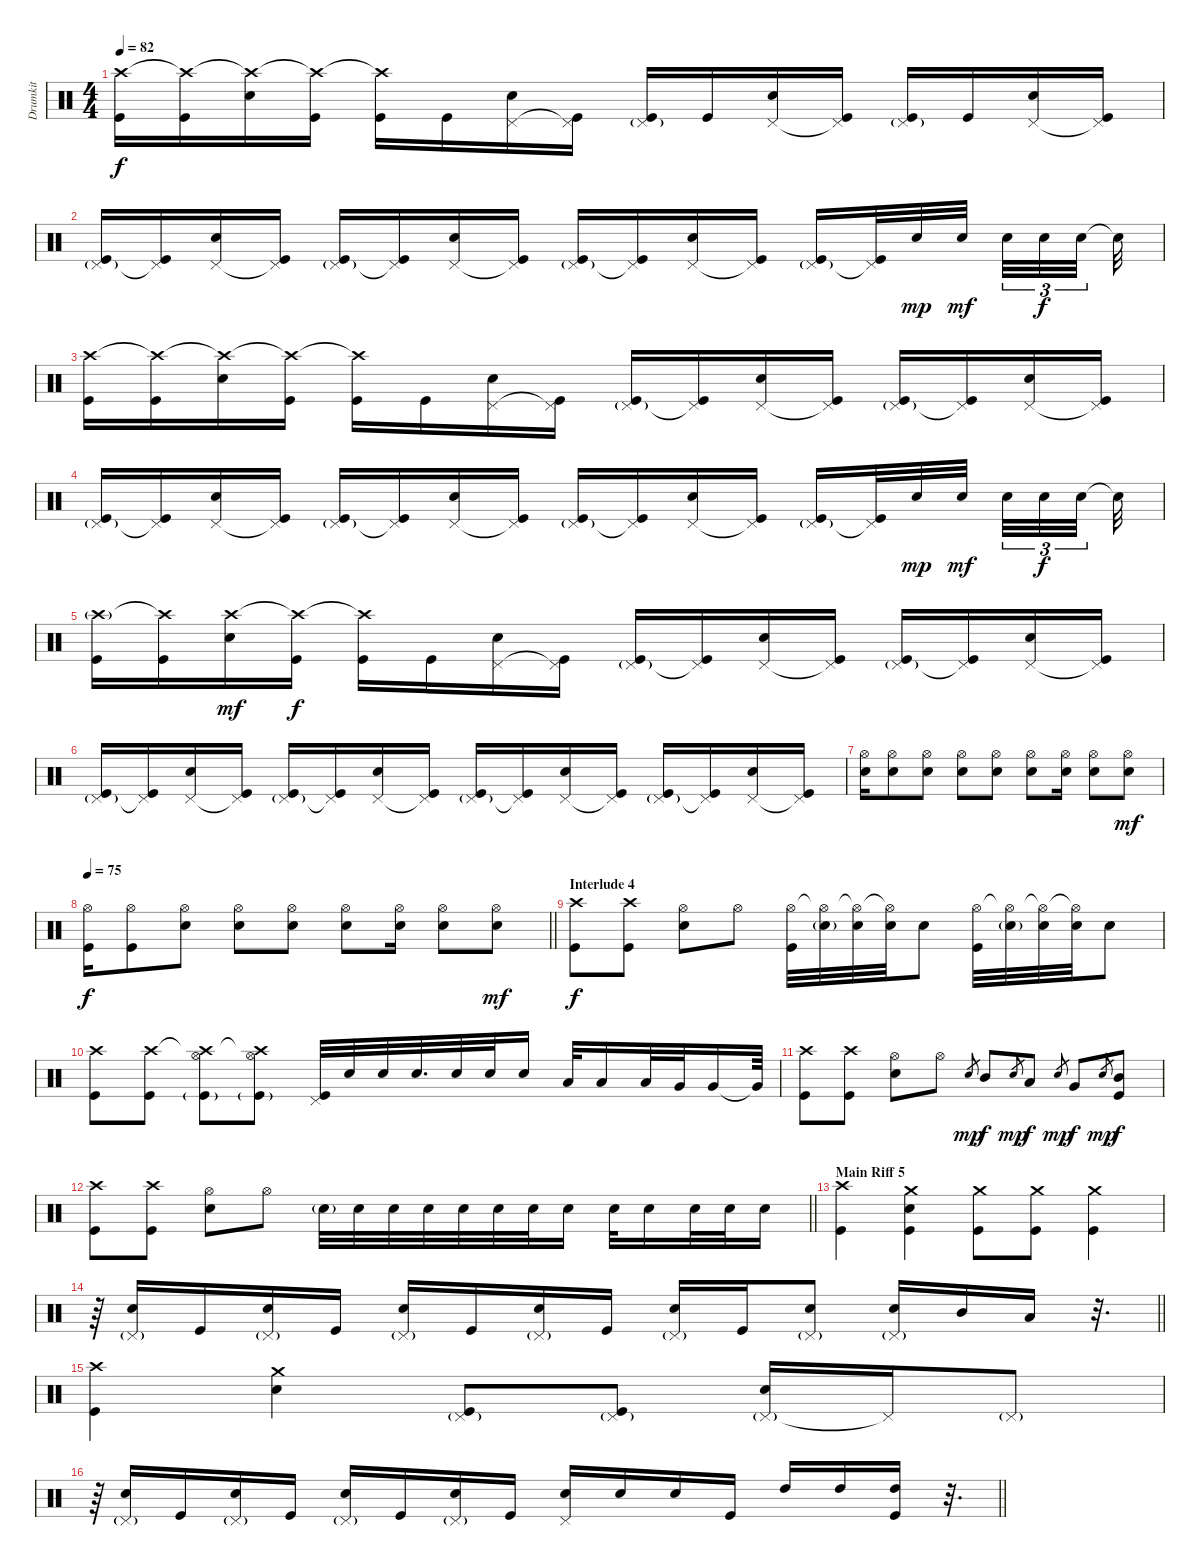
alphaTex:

\track ("Drumkit" "Drumkit") {instrument percussion}
\staff {score}
\articulation defaults
\ts (4 4)
\tempo 82
\clef neutral
\ks c
("Crash high (hit)" "Kick (hit)").16{dy f} ("Crash high (hit)"{t} "Kick (hit)").16 ("Crash high (hit)"{t} "Snare (hit) 2").16 ("Crash high (hit)"{t} "Kick (hit)").16 ("Crash high (hit)"{t} "Kick (hit)").16 "Kick (hit)".16 ("Pedal Hi-Hat (hit)" "Snare (hit) 2").16 ("Pedal Hi-Hat (hit)"{t} "Kick (hit)").16 ("Pedal Hi-Hat (hit)"{g} "Kick (hit)").16 "Kick (hit)".16 ("Pedal Hi-Hat (hit)" "Snare (hit) 2").16 ("Pedal Hi-Hat (hit)"{t} "Kick (hit)").16 ("Pedal Hi-Hat (hit)"{g} "Kick (hit)").16 "Kick (hit)".16 ("Pedal Hi-Hat (hit)" "Snare (hit) 2").16 ("Pedal Hi-Hat (hit)"{t} "Kick (hit)").16 |
("Pedal Hi-Hat (hit)"{g} "Kick (hit)").16 ("Pedal Hi-Hat (hit)"{t} "Kick (hit)").16 ("Pedal Hi-Hat (hit)" "Snare (hit) 2").16 ("Pedal Hi-Hat (hit)"{t} "Kick (hit)").16 ("Pedal Hi-Hat (hit)"{g} "Kick (hit)").16 ("Pedal Hi-Hat (hit)"{t} "Kick (hit)").16 ("Pedal Hi-Hat (hit)" "Snare (hit) 2").16 ("Pedal Hi-Hat (hit)"{t} "Kick (hit)").16 ("Pedal Hi-Hat (hit)"{g} "Kick (hit)").16 ("Pedal Hi-Hat (hit)"{t} "Kick (hit)").16 ("Pedal Hi-Hat (hit)" "Snare (hit) 2").16 ("Pedal Hi-Hat (hit)"{t} "Kick (hit)").16 ("Pedal Hi-Hat (hit)"{g} "Kick (hit)").16 ("Pedal Hi-Hat (hit)"{t} "Kick (hit)").32 "Snare (hit) 2".32{dy mp} "Snare (hit) 2".32{dy mf} "Snare (hit) 2".32{tu (3 2)} "Snare (hit) 2".32{tu (3 2) dy f} "Snare (hit) 2".32{tu (3 2)} "Snare (hit) 2"{t}.32 |
("Crash high (hit)" "Kick (hit)").16 ("Crash high (hit)"{t} "Kick (hit)").16 ("Crash high (hit)"{t} "Snare (hit) 2").16 ("Crash high (hit)"{t} "Kick (hit)").16 ("Crash high (hit)"{t} "Kick (hit)").16 "Kick (hit)".16 ("Pedal Hi-Hat (hit)" "Snare (hit) 2").16 ("Pedal Hi-Hat (hit)"{t} "Kick (hit)").16 ("Pedal Hi-Hat (hit)"{g} "Kick (hit)").16 ("Pedal Hi-Hat (hit)"{t} "Kick (hit)").16 ("Pedal Hi-Hat (hit)" "Snare (hit) 2").16 ("Pedal Hi-Hat (hit)"{t} "Kick (hit)").16 ("Pedal Hi-Hat (hit)"{g} "Kick (hit)").16 ("Pedal Hi-Hat (hit)"{t} "Kick (hit)").16 ("Pedal Hi-Hat (hit)" "Snare (hit) 2").16 ("Pedal Hi-Hat (hit)"{t} "Kick (hit)").16 |
("Pedal Hi-Hat (hit)"{g} "Kick (hit)").16 ("Pedal Hi-Hat (hit)"{t} "Kick (hit)").16 ("Pedal Hi-Hat (hit)" "Snare (hit) 2").16 ("Pedal Hi-Hat (hit)"{t} "Kick (hit)").16 ("Pedal Hi-Hat (hit)"{g} "Kick (hit)").16 ("Pedal Hi-Hat (hit)"{t} "Kick (hit)").16 ("Pedal Hi-Hat (hit)" "Snare (hit) 2").16 ("Pedal Hi-Hat (hit)"{t} "Kick (hit)").16 ("Pedal Hi-Hat (hit)"{g} "Kick (hit)").16 ("Pedal Hi-Hat (hit)"{t} "Kick (hit)").16 ("Pedal Hi-Hat (hit)" "Snare (hit) 2").16 ("Pedal Hi-Hat (hit)"{t} "Kick (hit)").16 ("Pedal Hi-Hat (hit)"{g} "Kick (hit)").16 ("Pedal Hi-Hat (hit)"{t} "Kick (hit)").32 "Snare (hit) 2".32{dy mp} "Snare (hit) 2".32{dy mf} "Snare (hit) 2".32{tu (3 2)} "Snare (hit) 2".32{tu (3 2) dy f} "Snare (hit) 2".32{tu (3 2)} "Snare (hit) 2"{t}.32 |
("Crash high (hit)"{g} "Kick (hit)").16 ("Crash high (hit)"{t} "Kick (hit)").16 ("Crash high (hit)" "Snare (hit) 2").16{dy mf} ("Crash high (hit)"{t} "Kick (hit)").16{dy f} ("Crash high (hit)"{t} "Kick (hit)").16 "Kick (hit)".16 ("Pedal Hi-Hat (hit)" "Snare (hit) 2").16 ("Pedal Hi-Hat (hit)"{t} "Kick (hit)").16 ("Pedal Hi-Hat (hit)"{g} "Kick (hit)").16 ("Pedal Hi-Hat (hit)"{t} "Kick (hit)").16 ("Pedal Hi-Hat (hit)" "Snare (hit) 2").16 ("Pedal Hi-Hat (hit)"{t} "Kick (hit)").16 ("Pedal Hi-Hat (hit)"{g} "Kick (hit)").16 ("Pedal Hi-Hat (hit)"{t} "Kick (hit)").16 ("Pedal Hi-Hat (hit)" "Snare (hit) 2").16 ("Pedal Hi-Hat (hit)"{t} "Kick (hit)").16 |
("Pedal Hi-Hat (hit)"{g} "Kick (hit)").16 ("Pedal Hi-Hat (hit)"{t} "Kick (hit)").16 ("Pedal Hi-Hat (hit)" "Snare (hit) 2").16 ("Pedal Hi-Hat (hit)"{t} "Kick (hit)").16 ("Pedal Hi-Hat (hit)"{g} "Kick (hit)").16 ("Pedal Hi-Hat (hit)"{t} "Kick (hit)").16 ("Pedal Hi-Hat (hit)" "Snare (hit) 2").16 ("Pedal Hi-Hat (hit)"{t} "Kick (hit)").16 ("Pedal Hi-Hat (hit)"{g} "Kick (hit)").16 ("Pedal Hi-Hat (hit)"{t} "Kick (hit)").16 ("Pedal Hi-Hat (hit)" "Snare (hit) 2").16 ("Pedal Hi-Hat (hit)"{t} "Kick (hit)").16 ("Pedal Hi-Hat (hit)"{g} "Kick (hit)").16 ("Pedal Hi-Hat (hit)"{t} "Kick (hit)").16 ("Pedal Hi-Hat (hit)" "Snare (hit) 2").16 ("Pedal Hi-Hat (hit)"{t} "Kick (hit)").16 |
("Hi-Hat (open)" "Snare (hit) 2").16 ("Hi-Hat (open)" "Snare (hit) 2").8 ("Hi-Hat (open)" "Snare (hit) 2").8 ("Hi-Hat (open)" "Snare (hit) 2").8 ("Hi-Hat (open)" "Snare (hit) 2").8 ("Hi-Hat (open)" "Snare (hit) 2").8 ("Hi-Hat (open)" "Snare (hit) 2").16 ("Hi-Hat (open)" "Snare (hit) 2").8 ("Hi-Hat (open)" "Snare (hit) 2").8{dy mf} |
\tempo 75
\barLineRight lightlight
("Hi-Hat (open)" "Kick (hit)").16{dy f} ("Hi-Hat (open)" "Kick (hit)").8 ("Hi-Hat (open)" "Snare (hit) 2").8 ("Hi-Hat (open)" "Snare (hit) 2").8 ("Hi-Hat (open)" "Snare (hit) 2").8 ("Hi-Hat (open)" "Snare (hit) 2").8 ("Hi-Hat (open)" "Snare (hit) 2").16 ("Hi-Hat (open)" "Snare (hit) 2").8 ("Hi-Hat (open)" "Snare (hit) 2").8{dy mf} |
\section ("" "Interlude 4")
("Crash high (hit)" "Kick (hit)").8{dy f} ("Crash high (hit)" "Kick (hit)").8 ("Hi-Hat (open)" "Snare (hit) 2").8 "Hi-Hat (open)".8 ("Hi-Hat (open)" "Kick (hit)").32 ("Hi-Hat (open)"{t} "Snare (hit) 2"{g}).32 ("Hi-Hat (open)"{t} "Snare (hit) 2").32 ("Hi-Hat (open)"{t} "Snare (hit) 2").32 "Snare (hit) 2".8 ("Hi-Hat (open)" "Kick (hit)").32 ("Hi-Hat (open)"{t} "Snare (hit) 2"{g}).32 ("Hi-Hat (open)"{t} "Snare (hit) 2").32 ("Hi-Hat (open)"{t} "Snare (hit) 2").32 "Snare (hit) 2".8 |
("Crash high (hit)" "Kick (hit)").8 ("Crash high (hit)" "Kick (hit)").8 ("Crash high (hit)"{t} "Hi-Hat (open)" "Kick (hit)"{g}).8 ("Crash high (hit)"{t} "Hi-Hat (open)" "Kick (hit)"{g}).8 ("Pedal Hi-Hat (hit)" "Kick (hit)").32 "Snare (hit) 2".32 "Snare (hit) 2".32 "Snare (hit) 2".32{d} "Snare (hit) 2".32 "Snare (hit) 2".32 "Snare (hit) 2".16 "Low Tom (hit)".32 "Low Tom (hit)".16 "Low Tom (hit)".32 "Very Low Tom (hit)".32 "Very Low Tom (hit)".16 "Very Low Tom (hit)"{t}.64 |
("Crash high (hit)" "Kick (hit)").8 ("Crash high (hit)" "Kick (hit)").8 ("Hi-Hat (open)" "Snare (hit) 2").8 "Hi-Hat (open)".8 "Snare (hit)".8{gr dy mp} "Mid Tom (hit)".8{dy f} "Snare (hit)".8{gr dy mp} "Low Tom (hit)".8{dy f} "Snare (hit)".8{gr dy mp} "Very Low Tom (hit)".8{dy f} "Snare (hit)".8{gr dy mp} ("Mid Tom (hit)" "Kick (hit)").8{dy f} |
\barLineRight lightlight
("Crash high (hit)" "Kick (hit)").8 ("Crash high (hit)" "Kick (hit)").8 ("Hi-Hat (open)" "Snare (hit) 2").8 "Hi-Hat (open)".8 "Snare (hit) 2"{g}.32 "Snare (hit) 2".32 "Snare (hit) 2".32 "Snare (hit) 2".32 "Snare (hit) 2".32 "Snare (hit) 2".32 "Snare (hit) 2".32 "Snare (hit) 2".16 "Snare (hit) 2".32 "Snare (hit) 2".16 "Snare (hit) 2".32 "Snare (hit) 2".32 "Snare (hit) 2".16 |
\section ("" "Main Riff 5")
("Crash high (hit)" "Kick (hit)").4 ("Crash medium (hit)" "Snare (hit) 2" "Kick (hit)").4 ("Crash medium (hit)" "Kick (hit)").8 ("Crash medium (hit)" "Kick (hit)").8 ("Crash medium (hit)" "Kick (hit)").4 |
\barLineRight lightlight
r.64 ("Pedal Hi-Hat (hit)"{g} "Snare (hit) 2").16 "Kick (hit)".16 ("Pedal Hi-Hat (hit)"{g} "Snare (hit) 2").16 "Kick (hit)".16 ("Pedal Hi-Hat (hit)"{g} "Snare (hit) 2").16 "Kick (hit)".16 ("Pedal Hi-Hat (hit)"{g} "Snare (hit) 2").16 "Kick (hit)".16 ("Pedal Hi-Hat (hit)"{g} "Snare (hit) 2").16 "Kick (hit)".16 ("Pedal Hi-Hat (hit)"{g} "Snare (hit) 2").8 ("Pedal Hi-Hat (hit)"{g} "Snare (hit) 2").16 "Mid Tom (hit)".16 "Low Tom (hit)".16 r.32{d} |
("Crash high (hit)" "Kick (hit)").4 ("Crash medium (hit)" "Snare (hit) 2").4 ("Pedal Hi-Hat (hit)"{g} "Kick (hit)").8 ("Pedal Hi-Hat (hit)"{g} "Kick (hit)").8 ("Pedal Hi-Hat (hit)"{g} "Snare (hit) 2").16 "Pedal Hi-Hat (hit)"{t}.16 "Pedal Hi-Hat (hit)"{g}.8 |
\barLineRight lightlight
r.64 ("Pedal Hi-Hat (hit)"{g} "Snare (hit) 2").16 "Kick (hit)".16 ("Pedal Hi-Hat (hit)"{g} "Snare (hit) 2").16 "Kick (hit)".16 ("Pedal Hi-Hat (hit)"{g} "Snare (hit) 2").16 "Kick (hit)".16 ("Pedal Hi-Hat (hit)"{g} "Snare (hit) 2").16 "Kick (hit)".16 ("Pedal Hi-Hat (hit)" "Snare (hit) 2").16 "Snare (hit) 2".16 "Snare (hit) 2".16 "Kick (hit)".16 "High Tom (hit)".16 "High Tom (hit)".16 ("High Tom (hit)" "Kick (hit)").16 r.32{d}
